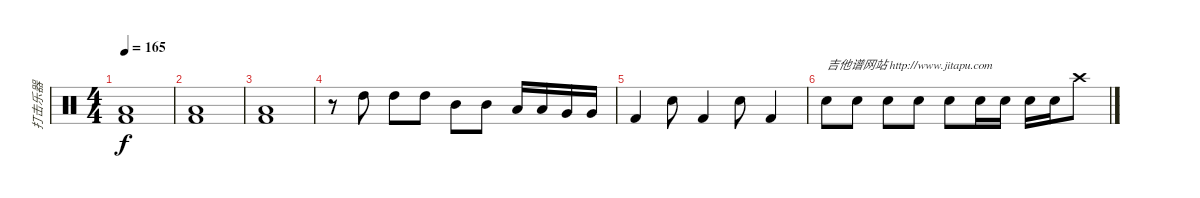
\track ("打击乐器" "打击乐器") {instrument percussion}
\staff {score}
\articulation defaults
\ts (4 4)
\tempo 165
\clef neutral
\ks c
("Kick (hit) 2" "Low Floor Tom (hit)").1{dy f} |
("Kick (hit) 2" "Low Floor Tom (hit)").1 |
("Kick (hit) 2" "Low Floor Tom (hit)").1 |
r.8 "High Tom (hit)".8 "High Tom (hit)".8 "High Tom (hit)".8 "Mid Tom (hit)".8 "Mid Tom (hit)".8 "Low Tom (hit)".16 "Low Tom (hit)".16 "Very Low Tom (hit)".16 "Very Low Tom (hit)".16 |
"Kick (hit) 2".4 "Snare (hit) 2".8 "Kick (hit) 2".4 "Snare (hit) 2".8 "Kick (hit) 2".4 |
"Snare (hit) 2".8{txt "吉他谱网站 http://www.jitapu.com"} "Snare (hit) 2".8 "Snare (hit) 2".8 "Snare (hit) 2".8 "Snare (hit) 2".8 "Snare (hit) 2".16 "Snare (hit) 2".16 "Snare (hit) 2".16 "Snare (hit) 2".16 "Crash high (hit)".8
